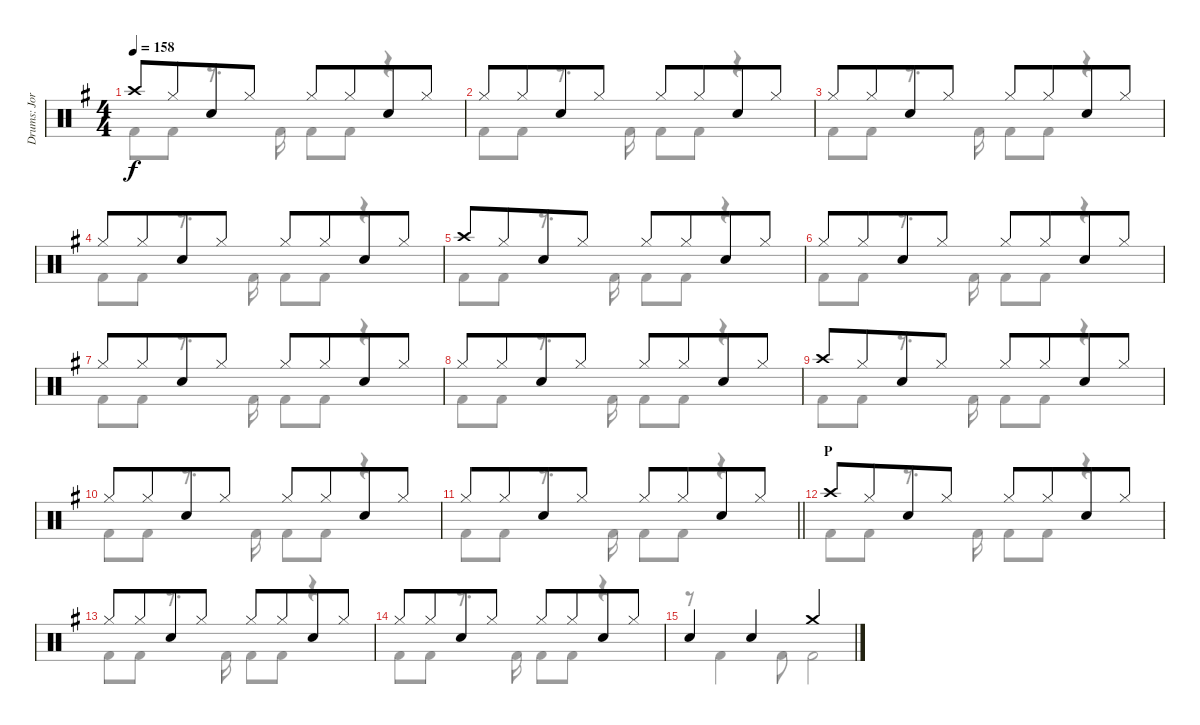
\track ("Drums: Jorg" "Drums: Jor") {instrument percussion}
\staff {score}
\articulation defaults
\voice
\ts (4 4)
\tempo 158
\clef neutral
\ks g "Crash high (hit)".8{dy f} "Hi-Hat (closed)".8{beam merge} "Snare (hit) 2".8 "Hi-Hat (closed)".8 "Hi-Hat (closed)".8 "Hi-Hat (closed)".8{beam merge} "Snare (hit) 2".8 "Hi-Hat (closed)".8
|
"Hi-Hat (closed)".8 "Hi-Hat (closed)".8{beam merge} "Snare (hit) 2".8 "Hi-Hat (closed)".8 "Hi-Hat (closed)".8 "Hi-Hat (closed)".8{beam merge} "Snare (hit) 2".8 "Hi-Hat (closed)".8 |
"Hi-Hat (closed)".8 "Hi-Hat (closed)".8{beam merge} "Snare (hit) 2".8 "Hi-Hat (closed)".8 "Hi-Hat (closed)".8 "Hi-Hat (closed)".8{beam merge} "Snare (hit) 2".8 "Hi-Hat (closed)".8 |
"Hi-Hat (closed)".8 "Hi-Hat (closed)".8{beam merge} "Snare (hit) 2".8 "Hi-Hat (closed)".8 "Hi-Hat (closed)".8 "Hi-Hat (closed)".8{beam merge} "Snare (hit) 2".8 "Hi-Hat (closed)".8 |
"Crash high (hit)".8 "Hi-Hat (closed)".8{beam merge} "Snare (hit) 2".8 "Hi-Hat (closed)".8 "Hi-Hat (closed)".8 "Hi-Hat (closed)".8{beam merge} "Snare (hit) 2".8 "Hi-Hat (closed)".8 |
"Hi-Hat (closed)".8 "Hi-Hat (closed)".8{beam merge} "Snare (hit) 2".8 "Hi-Hat (closed)".8 "Hi-Hat (closed)".8 "Hi-Hat (closed)".8{beam merge} "Snare (hit) 2".8 "Hi-Hat (closed)".8 |
"Hi-Hat (closed)".8 "Hi-Hat (closed)".8{beam merge} "Snare (hit) 2".8 "Hi-Hat (closed)".8 "Hi-Hat (closed)".8 "Hi-Hat (closed)".8{beam merge} "Snare (hit) 2".8 "Hi-Hat (closed)".8 |
"Hi-Hat (closed)".8 "Hi-Hat (closed)".8{beam merge} "Snare (hit) 2".8 "Hi-Hat (closed)".8 "Hi-Hat (closed)".8 "Hi-Hat (closed)".8{beam merge} "Snare (hit) 2".8 "Hi-Hat (closed)".8 |
"Crash high (hit)".8 "Hi-Hat (closed)".8{beam merge} "Snare (hit) 2".8 "Hi-Hat (closed)".8 "Hi-Hat (closed)".8 "Hi-Hat (closed)".8{beam merge} "Snare (hit) 2".8 "Hi-Hat (closed)".8 |
"Hi-Hat (closed)".8 "Hi-Hat (closed)".8{beam merge} "Snare (hit) 2".8 "Hi-Hat (closed)".8 "Hi-Hat (closed)".8 "Hi-Hat (closed)".8{beam merge} "Snare (hit) 2".8 "Hi-Hat (closed)".8 |
\barLineRight lightlight "Hi-Hat (closed)".8 "Hi-Hat (closed)".8{beam merge} "Snare (hit) 2".8 "Hi-Hat (closed)".8 "Hi-Hat (closed)".8 "Hi-Hat (closed)".8{beam merge} "Snare (hit) 2".8 "Hi-Hat (closed)".8
|
\section ("" "P")
"Crash high (hit)".8 "Hi-Hat (closed)".8{beam merge} "Snare (hit) 2".8 "Hi-Hat (closed)".8 "Hi-Hat (closed)".8 "Hi-Hat (closed)".8{beam merge} "Snare (hit) 2".8 "Hi-Hat (closed)".8 |
"Hi-Hat (closed)".8 "Hi-Hat (closed)".8{beam merge} "Snare (hit) 2".8 "Hi-Hat (closed)".8 "Hi-Hat (closed)".8 "Hi-Hat (closed)".8{beam merge} "Snare (hit) 2".8 "Hi-Hat (closed)".8 |
"Hi-Hat (closed)".8 "Hi-Hat (closed)".8{beam merge} "Snare (hit) 2".8 "Hi-Hat (closed)".8 "Hi-Hat (closed)".8 "Hi-Hat (closed)".8{beam merge} "Snare (hit) 2".8 "Hi-Hat (closed)".8 |
"Snare (hit) 2".4 "Snare (hit) 2".4 "Crash medium (hit)".2
\voice
\clef neutral
\ottava regular
\simile none
\ks g "Kick (hit) 2".8{dy f} "Kick (hit) 2".8
r.8{d} "Kick (hit) 2".16 "Kick (hit) 2".8 "Kick (hit) 2".8 r.4 |
"Kick (hit) 2".8 "Kick (hit) 2".8 r.8{d} "Kick (hit) 2".16 "Kick (hit) 2".8 "Kick (hit) 2".8 r.4 |
"Kick (hit) 2".8 "Kick (hit) 2".8 r.8{d} "Kick (hit) 2".16 "Kick (hit) 2".8 "Kick (hit) 2".8 r.4 |
"Kick (hit) 2".8 "Kick (hit) 2".8 r.8{d} "Kick (hit) 2".16 "Kick (hit) 2".8 "Kick (hit) 2".8 r.4 |
"Kick (hit) 2".8 "Kick (hit) 2".8 r.8{d} "Kick (hit) 2".16 "Kick (hit) 2".8 "Kick (hit) 2".8 r.4 |
"Kick (hit) 2".8 "Kick (hit) 2".8 r.8{d} "Kick (hit) 2".16 "Kick (hit) 2".8 "Kick (hit) 2".8 r.4 |
"Kick (hit) 2".8 "Kick (hit) 2".8 r.8{d} "Kick (hit) 2".16 "Kick (hit) 2".8 "Kick (hit) 2".8 r.4 |
"Kick (hit) 2".8 "Kick (hit) 2".8 r.8{d} "Kick (hit) 2".16 "Kick (hit) 2".8 "Kick (hit) 2".8 r.4 |
"Kick (hit) 2".8 "Kick (hit) 2".8 r.8{d} "Kick (hit) 2".16 "Kick (hit) 2".8 "Kick (hit) 2".8 r.4 |
"Kick (hit) 2".8 "Kick (hit) 2".8 r.8{d} "Kick (hit) 2".16 "Kick (hit) 2".8 "Kick (hit) 2".8 r.4 |
\barLineRight lightlight "Kick (hit) 2".8 "Kick (hit) 2".8
r.8{d} "Kick (hit) 2".16 "Kick (hit) 2".8 "Kick (hit) 2".8 r.4 |
"Kick (hit) 2".8 "Kick (hit) 2".8 r.8{d} "Kick (hit) 2".16 "Kick (hit) 2".8 "Kick (hit) 2".8 r.4 |
"Kick (hit) 2".8 "Kick (hit) 2".8 r.8{d} "Kick (hit) 2".16 "Kick (hit) 2".8 "Kick (hit) 2".8 r.4 |
"Kick (hit) 2".8 "Kick (hit) 2".8 r.8{d} "Kick (hit) 2".16 "Kick (hit) 2".8 "Kick (hit) 2".8 r.4 |
r.8 "Kick (hit) 2".4 "Kick (hit) 2".8 "Kick (hit) 2".2
